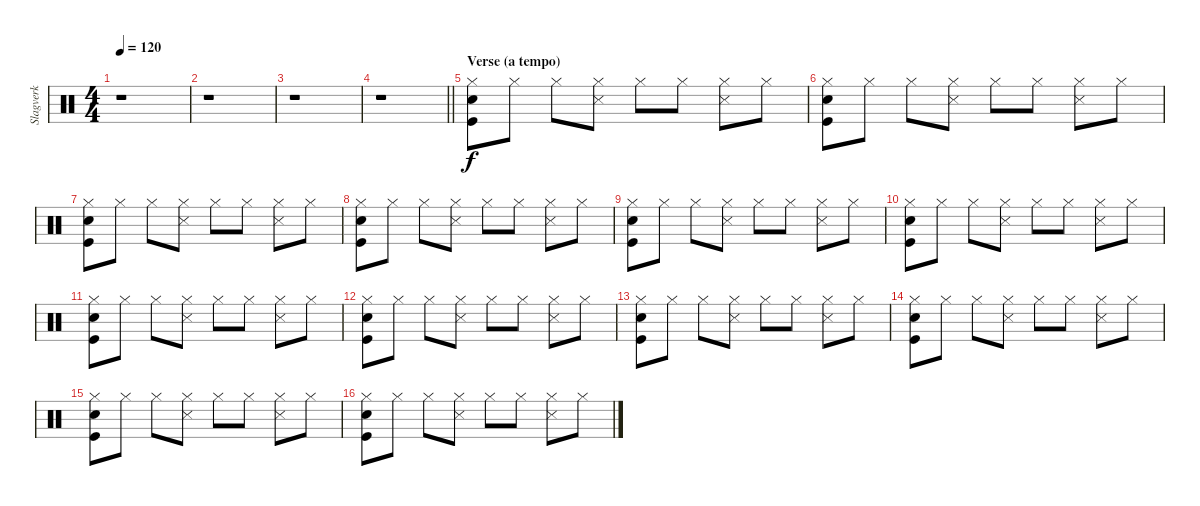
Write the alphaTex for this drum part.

\track ("Slagverk" "Slagverk") {instrument percussion}
\staff {score}
\articulation defaults
\ts (4 4)
\tempo 120
\clef neutral
\ks aminor
r.1{dy f} |
r.1 |
r.1 |
\barLineRight lightlight
r.1 |
\section ("" "Verse (a tempo)")
("Hi-Hat (closed)" "Snare (hit) 2" "Kick (hit)").8 "Hi-Hat (closed)".8 "Hi-Hat (closed)".8 ("Hi-Hat (closed)" "Snare (side stick) 3").8 "Hi-Hat (closed)".8 "Hi-Hat (closed)".8 ("Hi-Hat (closed)" "Snare (side stick) 3").8 "Hi-Hat (closed)".8 |
("Hi-Hat (closed)" "Snare (hit) 2" "Kick (hit)").8 "Hi-Hat (closed)".8 "Hi-Hat (closed)".8 ("Hi-Hat (closed)" "Snare (side stick) 3").8 "Hi-Hat (closed)".8 "Hi-Hat (closed)".8 ("Hi-Hat (closed)" "Snare (side stick) 3").8 "Hi-Hat (closed)".8 |
("Hi-Hat (closed)" "Snare (hit) 2" "Kick (hit)").8 "Hi-Hat (closed)".8 "Hi-Hat (closed)".8 ("Hi-Hat (closed)" "Snare (side stick) 3").8 "Hi-Hat (closed)".8 "Hi-Hat (closed)".8 ("Hi-Hat (closed)" "Snare (side stick) 3").8 "Hi-Hat (closed)".8 |
("Hi-Hat (closed)" "Snare (hit) 2" "Kick (hit)").8 "Hi-Hat (closed)".8 "Hi-Hat (closed)".8 ("Hi-Hat (closed)" "Snare (side stick) 3").8 "Hi-Hat (closed)".8 "Hi-Hat (closed)".8 ("Hi-Hat (closed)" "Snare (side stick) 3").8 "Hi-Hat (closed)".8 |
("Hi-Hat (closed)" "Snare (hit) 2" "Kick (hit)").8 "Hi-Hat (closed)".8 "Hi-Hat (closed)".8 ("Hi-Hat (closed)" "Snare (side stick) 3").8 "Hi-Hat (closed)".8 "Hi-Hat (closed)".8 ("Hi-Hat (closed)" "Snare (side stick) 3").8 "Hi-Hat (closed)".8 |
("Hi-Hat (closed)" "Snare (hit) 2" "Kick (hit)").8 "Hi-Hat (closed)".8 "Hi-Hat (closed)".8 ("Hi-Hat (closed)" "Snare (side stick) 3").8 "Hi-Hat (closed)".8 "Hi-Hat (closed)".8 ("Hi-Hat (closed)" "Snare (side stick) 3").8 "Hi-Hat (closed)".8 |
("Hi-Hat (closed)" "Snare (hit) 2" "Kick (hit)").8 "Hi-Hat (closed)".8 "Hi-Hat (closed)".8 ("Hi-Hat (closed)" "Snare (side stick) 3").8 "Hi-Hat (closed)".8 "Hi-Hat (closed)".8 ("Hi-Hat (closed)" "Snare (side stick) 3").8 "Hi-Hat (closed)".8 |
("Hi-Hat (closed)" "Snare (hit) 2" "Kick (hit)").8 "Hi-Hat (closed)".8 "Hi-Hat (closed)".8 ("Hi-Hat (closed)" "Snare (side stick) 3").8 "Hi-Hat (closed)".8 "Hi-Hat (closed)".8 ("Hi-Hat (closed)" "Snare (side stick) 3").8 "Hi-Hat (closed)".8 |
("Hi-Hat (closed)" "Snare (hit) 2" "Kick (hit)").8 "Hi-Hat (closed)".8 "Hi-Hat (closed)".8 ("Hi-Hat (closed)" "Snare (side stick) 3").8 "Hi-Hat (closed)".8 "Hi-Hat (closed)".8 ("Hi-Hat (closed)" "Snare (side stick) 3").8 "Hi-Hat (closed)".8 |
("Hi-Hat (closed)" "Snare (hit) 2" "Kick (hit)").8 "Hi-Hat (closed)".8 "Hi-Hat (closed)".8 ("Hi-Hat (closed)" "Snare (side stick) 3").8 "Hi-Hat (closed)".8 "Hi-Hat (closed)".8 ("Hi-Hat (closed)" "Snare (side stick) 3").8 "Hi-Hat (closed)".8 |
("Hi-Hat (closed)" "Snare (hit) 2" "Kick (hit)").8 "Hi-Hat (closed)".8 "Hi-Hat (closed)".8 ("Hi-Hat (closed)" "Snare (side stick) 3").8 "Hi-Hat (closed)".8 "Hi-Hat (closed)".8 ("Hi-Hat (closed)" "Snare (side stick) 3").8 "Hi-Hat (closed)".8 |
("Hi-Hat (closed)" "Snare (hit) 2" "Kick (hit)").8 "Hi-Hat (closed)".8 "Hi-Hat (closed)".8 ("Hi-Hat (closed)" "Snare (side stick) 3").8 "Hi-Hat (closed)".8 "Hi-Hat (closed)".8 ("Hi-Hat (closed)" "Snare (side stick) 3").8 "Hi-Hat (closed)".8
